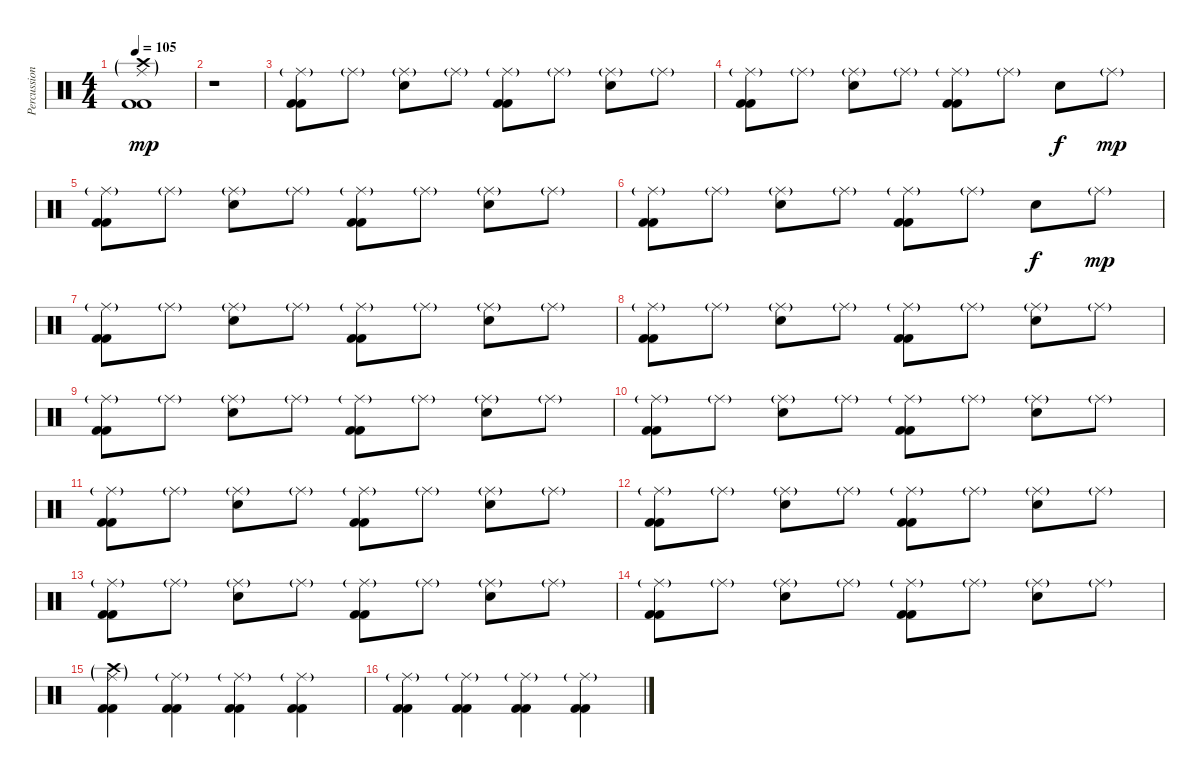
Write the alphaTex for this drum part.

\track ("Percussion" "Percussion") {instrument percussion}
\staff {score}
\articulation defaults
\ts (4 4)
\tempo 105
\clef neutral
\ks c
("Ride (middle)"{g} "Crash high (hit)"{g} "Kick (hit) 2" "Kick (hit) 2").1{dy mp} |
r.1 |
("Ride (middle)"{g} "Kick (hit) 2" "Kick (hit) 2").8 "Ride (middle)"{g}.8 ("Ride (middle)"{g} "Snare (hit) 2").8 "Ride (middle)"{g}.8 ("Ride (middle)"{g} "Kick (hit) 2" "Kick (hit) 2").8 "Ride (middle)"{g}.8 ("Ride (middle)"{g} "Snare (hit) 2").8 "Ride (middle)"{g}.8 |
("Ride (middle)"{g} "Kick (hit) 2" "Kick (hit) 2").8 "Ride (middle)"{g}.8 ("Ride (middle)"{g} "Snare (hit) 2").8 "Ride (middle)"{g}.8 ("Ride (middle)"{g} "Kick (hit) 2" "Kick (hit) 2").8 "Ride (middle)"{g}.8 "Snare (hit) 2".8{dy f} "Ride (middle)"{g}.8{dy mp} |
("Ride (middle)"{g} "Kick (hit) 2" "Kick (hit) 2").8 "Ride (middle)"{g}.8 ("Ride (middle)"{g} "Snare (hit) 2").8 "Ride (middle)"{g}.8 ("Ride (middle)"{g} "Kick (hit) 2" "Kick (hit) 2").8 "Ride (middle)"{g}.8 ("Ride (middle)"{g} "Snare (hit) 2").8 "Ride (middle)"{g}.8 |
("Ride (middle)"{g} "Kick (hit) 2" "Kick (hit) 2").8 "Ride (middle)"{g}.8 ("Ride (middle)"{g} "Snare (hit) 2").8 "Ride (middle)"{g}.8 ("Ride (middle)"{g} "Kick (hit) 2" "Kick (hit) 2").8 "Ride (middle)"{g}.8 "Snare (hit) 2".8{dy f} "Ride (middle)"{g}.8{dy mp} |
("Ride (middle)"{g} "Kick (hit) 2" "Kick (hit) 2").8 "Ride (middle)"{g}.8 ("Ride (middle)"{g} "Snare (hit) 2").8 "Ride (middle)"{g}.8 ("Ride (middle)"{g} "Kick (hit) 2" "Kick (hit) 2").8 "Ride (middle)"{g}.8 ("Ride (middle)"{g} "Snare (hit) 2").8 "Ride (middle)"{g}.8 |
("Ride (middle)"{g} "Kick (hit) 2" "Kick (hit) 2").8 "Ride (middle)"{g}.8 ("Ride (middle)"{g} "Snare (hit) 2").8 "Ride (middle)"{g}.8 ("Ride (middle)"{g} "Kick (hit) 2" "Kick (hit) 2").8 "Ride (middle)"{g}.8 ("Ride (middle)"{g} "Snare (hit) 2").8 "Ride (middle)"{g}.8 |
("Ride (middle)"{g} "Kick (hit) 2" "Kick (hit) 2").8 "Ride (middle)"{g}.8 ("Ride (middle)"{g} "Snare (hit) 2").8 "Ride (middle)"{g}.8 ("Ride (middle)"{g} "Kick (hit) 2" "Kick (hit) 2").8 "Ride (middle)"{g}.8 ("Ride (middle)"{g} "Snare (hit) 2").8 "Ride (middle)"{g}.8 |
("Ride (middle)"{g} "Kick (hit) 2" "Kick (hit) 2").8 "Ride (middle)"{g}.8 ("Ride (middle)"{g} "Snare (hit) 2").8 "Ride (middle)"{g}.8 ("Ride (middle)"{g} "Kick (hit) 2" "Kick (hit) 2").8 "Ride (middle)"{g}.8 ("Ride (middle)"{g} "Snare (hit) 2").8 "Ride (middle)"{g}.8 |
("Ride (middle)"{g} "Kick (hit) 2" "Kick (hit) 2").8 "Ride (middle)"{g}.8 ("Ride (middle)"{g} "Snare (hit) 2").8 "Ride (middle)"{g}.8 ("Ride (middle)"{g} "Kick (hit) 2" "Kick (hit) 2").8 "Ride (middle)"{g}.8 ("Ride (middle)"{g} "Snare (hit) 2").8 "Ride (middle)"{g}.8 |
("Ride (middle)"{g} "Kick (hit) 2" "Kick (hit) 2").8 "Ride (middle)"{g}.8 ("Ride (middle)"{g} "Snare (hit) 2").8 "Ride (middle)"{g}.8 ("Ride (middle)"{g} "Kick (hit) 2" "Kick (hit) 2").8 "Ride (middle)"{g}.8 ("Ride (middle)"{g} "Snare (hit) 2").8 "Ride (middle)"{g}.8 |
("Ride (middle)"{g} "Kick (hit) 2" "Kick (hit) 2").8 "Ride (middle)"{g}.8 ("Ride (middle)"{g} "Snare (hit) 2").8 "Ride (middle)"{g}.8 ("Ride (middle)"{g} "Kick (hit) 2" "Kick (hit) 2").8 "Ride (middle)"{g}.8 ("Ride (middle)"{g} "Snare (hit) 2").8 "Ride (middle)"{g}.8 |
("Ride (middle)"{g} "Kick (hit) 2" "Kick (hit) 2").8 "Ride (middle)"{g}.8 ("Ride (middle)"{g} "Snare (hit) 2").8 "Ride (middle)"{g}.8 ("Ride (middle)"{g} "Kick (hit) 2" "Kick (hit) 2").8 "Ride (middle)"{g}.8 ("Ride (middle)"{g} "Snare (hit) 2").8 "Ride (middle)"{g}.8 |
("Ride (middle)"{g} "Crash high (hit)"{g} "Kick (hit) 2" "Kick (hit) 2").4 ("Ride (middle)"{g} "Kick (hit) 2" "Kick (hit) 2").4 ("Ride (middle)"{g} "Kick (hit) 2" "Kick (hit) 2").4 ("Ride (middle)"{g} "Kick (hit) 2" "Kick (hit) 2").4 |
("Ride (middle)"{g} "Kick (hit) 2" "Kick (hit) 2").4 ("Ride (middle)"{g} "Kick (hit) 2" "Kick (hit) 2").4 ("Ride (middle)"{g} "Kick (hit) 2" "Kick (hit) 2").4 ("Ride (middle)"{g} "Kick (hit) 2" "Kick (hit) 2").4
